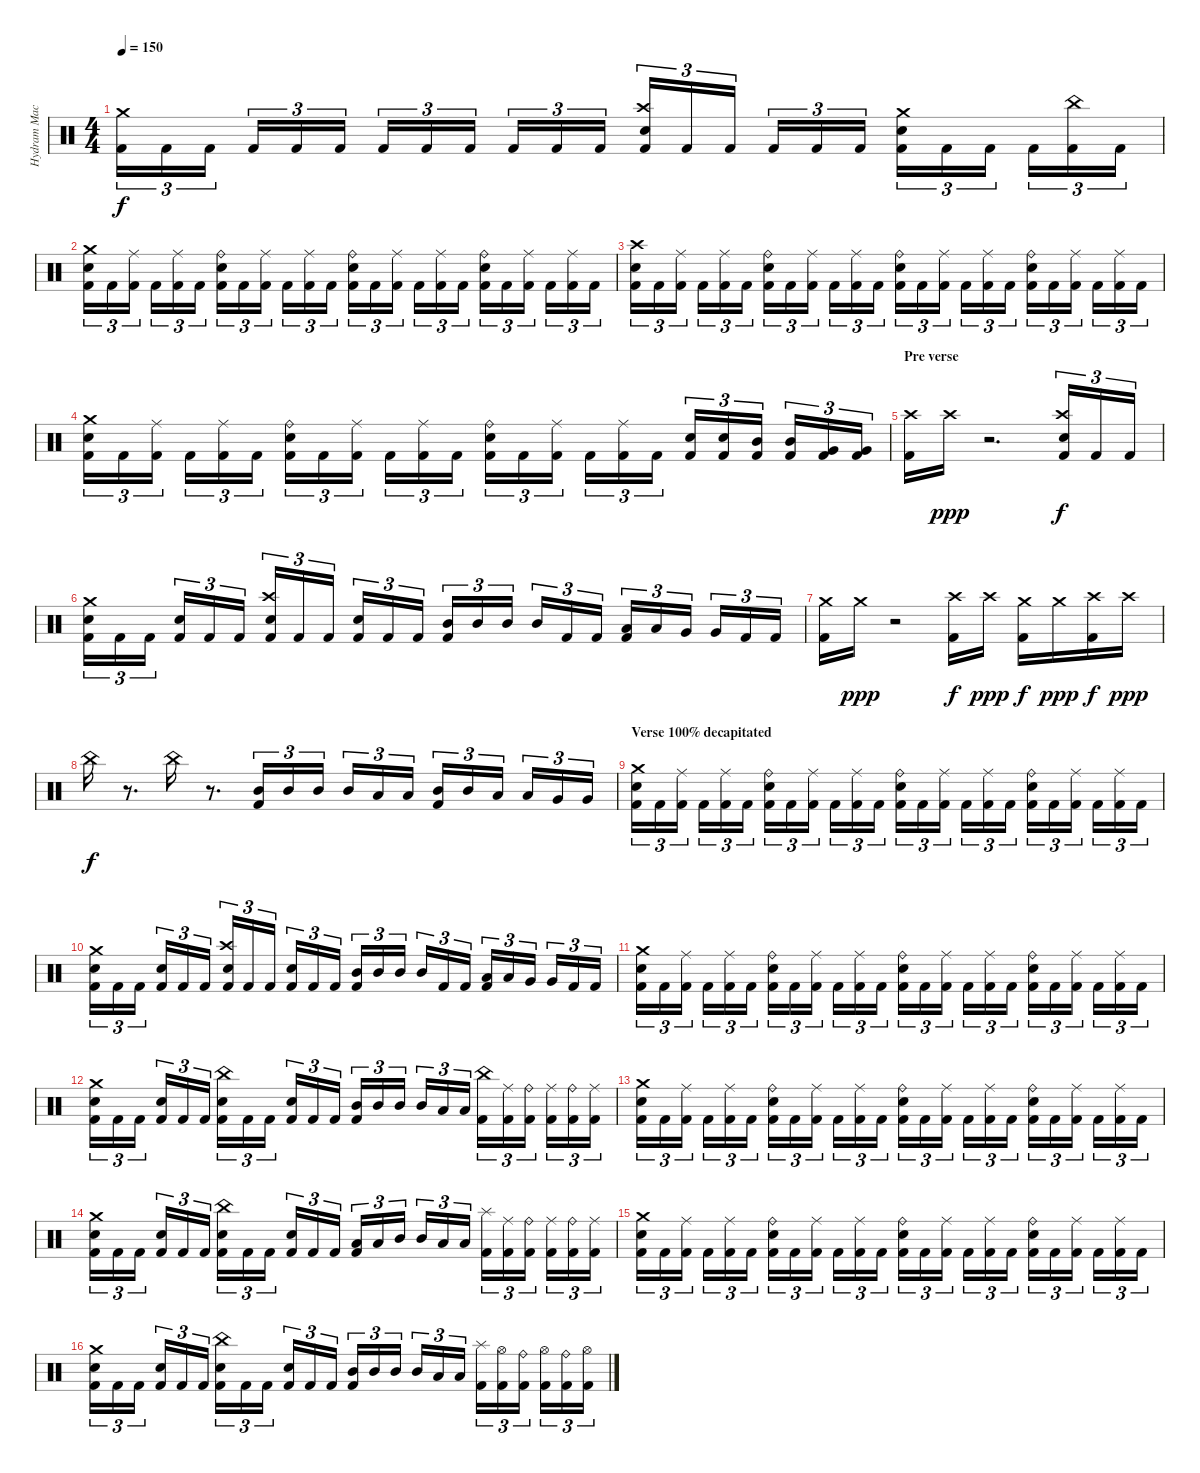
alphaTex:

\track ("Hydram Machine" "Hydram Mac") {instrument percussion}
\staff {score}
\articulation defaults
\ts (4 4)
\tempo 150
\clef neutral
\ks c
("Crash medium (hit)" "Kick (hit) 2").16{tu (3 2) dy f} "Kick (hit) 2".16{tu (3 2)} "Kick (hit) 2".16{tu (3 2) beam splitsecondary} "Kick (hit) 2".16{tu (3 2)} "Kick (hit) 2".16{tu (3 2)} "Kick (hit) 2".16{tu (3 2)} "Kick (hit) 2".16{tu (3 2)} "Kick (hit) 2".16{tu (3 2)} "Kick (hit) 2".16{tu (3 2) beam splitsecondary} "Kick (hit) 2".16{tu (3 2)} "Kick (hit) 2".16{tu (3 2)} "Kick (hit) 2".16{tu (3 2)} ("Crash high (hit)" "Electric Snare (hit)" "Kick (hit) 2").16{tu (3 2)} "Kick (hit) 2".16{tu (3 2)} "Kick (hit) 2".16{tu (3 2) beam splitsecondary} "Kick (hit) 2".16{tu (3 2)} "Kick (hit) 2".16{tu (3 2)} "Kick (hit) 2".16{tu (3 2)} ("Crash medium (hit)" "Electric Snare (hit)" "Kick (hit) 2").16{tu (3 2)} "Kick (hit) 2".16{tu (3 2)} "Kick (hit) 2".16{tu (3 2) beam splitsecondary} "Kick (hit) 2".16{tu (3 2)} ("China (hit)" "Kick (hit) 2").16{tu (3 2)} "Kick (hit) 2".16{tu (3 2)} |
("Crash medium (hit)" "Electric Snare (hit)" "Kick (hit) 2").16{tu (3 2)} "Kick (hit) 2".16{tu (3 2)} ("Ride (middle)" "Kick (hit) 2").16{tu (3 2) beam splitsecondary} "Kick (hit) 2".16{tu (3 2)} ("Ride (middle)" "Kick (hit) 2").16{tu (3 2)} "Kick (hit) 2".16{tu (3 2)} ("Ride (bell)" "Electric Snare (hit)" "Kick (hit) 2").16{tu (3 2)} "Kick (hit) 2".16{tu (3 2)} ("Ride (middle)" "Kick (hit) 2").16{tu (3 2) beam splitsecondary} "Kick (hit) 2".16{tu (3 2)} ("Ride (middle)" "Kick (hit) 2").16{tu (3 2)} "Kick (hit) 2".16{tu (3 2)} ("Ride (bell)" "Electric Snare (hit)" "Kick (hit) 2").16{tu (3 2)} "Kick (hit) 2".16{tu (3 2)} ("Ride (middle)" "Kick (hit) 2").16{tu (3 2) beam splitsecondary} "Kick (hit) 2".16{tu (3 2)} ("Ride (middle)" "Kick (hit) 2").16{tu (3 2)} "Kick (hit) 2".16{tu (3 2)} ("Ride (bell)" "Electric Snare (hit)" "Kick (hit) 2").16{tu (3 2)} "Kick (hit) 2".16{tu (3 2)} ("Ride (middle)" "Kick (hit) 2").16{tu (3 2) beam splitsecondary} "Kick (hit) 2".16{tu (3 2)} ("Ride (middle)" "Kick (hit) 2").16{tu (3 2)} "Kick (hit) 2".16{tu (3 2)} |
("Crash high (hit)" "Electric Snare (hit)" "Kick (hit) 2").16{tu (3 2)} "Kick (hit) 2".16{tu (3 2)} ("Ride (middle)" "Kick (hit) 2").16{tu (3 2) beam splitsecondary} "Kick (hit) 2".16{tu (3 2)} ("Ride (middle)" "Kick (hit) 2").16{tu (3 2)} "Kick (hit) 2".16{tu (3 2)} ("Ride (bell)" "Electric Snare (hit)" "Kick (hit) 2").16{tu (3 2)} "Kick (hit) 2".16{tu (3 2)} ("Ride (middle)" "Kick (hit) 2").16{tu (3 2) beam splitsecondary} "Kick (hit) 2".16{tu (3 2)} ("Ride (middle)" "Kick (hit) 2").16{tu (3 2)} "Kick (hit) 2".16{tu (3 2)} ("Ride (bell)" "Electric Snare (hit)" "Kick (hit) 2").16{tu (3 2)} "Kick (hit) 2".16{tu (3 2)} ("Ride (middle)" "Kick (hit) 2").16{tu (3 2) beam splitsecondary} "Kick (hit) 2".16{tu (3 2)} ("Ride (middle)" "Kick (hit) 2").16{tu (3 2)} "Kick (hit) 2".16{tu (3 2)} ("Ride (bell)" "Electric Snare (hit)" "Kick (hit) 2").16{tu (3 2)} "Kick (hit) 2".16{tu (3 2)} ("Ride (middle)" "Kick (hit) 2").16{tu (3 2) beam splitsecondary} "Kick (hit) 2".16{tu (3 2)} ("Ride (middle)" "Kick (hit) 2").16{tu (3 2)} "Kick (hit) 2".16{tu (3 2)} |
("Crash medium (hit)" "Electric Snare (hit)" "Kick (hit) 2").16{tu (3 2)} "Kick (hit) 2".16{tu (3 2)} ("Ride (middle)" "Kick (hit) 2").16{tu (3 2) beam splitsecondary} "Kick (hit) 2".16{tu (3 2)} ("Ride (middle)" "Kick (hit) 2").16{tu (3 2)} "Kick (hit) 2".16{tu (3 2)} ("Ride (bell)" "Electric Snare (hit)" "Kick (hit) 2").16{tu (3 2)} "Kick (hit) 2".16{tu (3 2)} ("Ride (middle)" "Kick (hit) 2").16{tu (3 2) beam splitsecondary} "Kick (hit) 2".16{tu (3 2)} ("Ride (middle)" "Kick (hit) 2").16{tu (3 2)} "Kick (hit) 2".16{tu (3 2)} ("Ride (bell)" "Electric Snare (hit)" "Kick (hit) 2").16{tu (3 2)} "Kick (hit) 2".16{tu (3 2)} ("Ride (middle)" "Kick (hit) 2").16{tu (3 2) beam splitsecondary} "Kick (hit) 2".16{tu (3 2)} ("Ride (middle)" "Kick (hit) 2").16{tu (3 2)} "Kick (hit) 2".16{tu (3 2)} ("Electric Snare (hit)" "Kick (hit) 2").16{tu (3 2)} ("Electric Snare (hit)" "Kick (hit) 2").16{tu (3 2)} ("Mid Tom (hit)" "Kick (hit) 2").16{tu (3 2) beam splitsecondary} ("Mid Tom (hit)" "Kick (hit) 2").16{tu (3 2)} ("Very Low Tom (hit)" "Kick (hit) 2").16{tu (3 2)} ("Very Low Tom (hit)" "Kick (hit) 2").16{tu (3 2)} |
\section ("" "Pre verse")
("Crash high (hit)" "Kick (hit) 2").16 "Crash high (hit)".16{dy ppp} r.2{d} ("Crash high (hit)" "Electric Snare (hit)" "Kick (hit) 2").16{tu (3 2) dy f} "Kick (hit) 2".16{tu (3 2)} "Kick (hit) 2".16{tu (3 2)} |
("Crash medium (hit)" "Electric Snare (hit)" "Kick (hit) 2").16{tu (3 2)} "Kick (hit) 2".16{tu (3 2)} "Kick (hit) 2".16{tu (3 2) beam splitsecondary} ("Electric Snare (hit)" "Kick (hit) 2").16{tu (3 2)} "Kick (hit) 2".16{tu (3 2)} "Kick (hit) 2".16{tu (3 2)} ("Crash high (hit)" "Electric Snare (hit)" "Kick (hit) 2").16{tu (3 2)} "Kick (hit) 2".16{tu (3 2)} "Kick (hit) 2".16{tu (3 2) beam splitsecondary} ("Electric Snare (hit)" "Kick (hit) 2").16{tu (3 2)} "Kick (hit) 2".16{tu (3 2)} "Kick (hit) 2".16{tu (3 2)} ("Mid Tom (hit)" "Kick (hit) 2").16{tu (3 2)} "Mid Tom (hit)".16{tu (3 2)} "Mid Tom (hit)".16{tu (3 2) beam splitsecondary} "Mid Tom (hit)".16{tu (3 2)} "Kick (hit) 2".16{tu (3 2)} "Kick (hit) 2".16{tu (3 2)} ("Low Tom (hit)" "Kick (hit) 2").16{tu (3 2)} "Low Tom (hit)".16{tu (3 2)} "Very Low Tom (hit)".16{tu (3 2) beam splitsecondary} "Very Low Tom (hit)".16{tu (3 2)} "Kick (hit) 2".16{tu (3 2)} "Kick (hit) 2".16{tu (3 2)} |
("Crash medium (hit)" "Kick (hit) 2").16 "Crash medium (hit)".16{dy ppp} r.2 ("Crash high (hit)" "Kick (hit) 2").16{dy f} "Crash high (hit)".16{dy ppp} ("Crash medium (hit)" "Kick (hit) 2").16{dy f} "Crash medium (hit)".16{dy ppp} ("Crash high (hit)" "Kick (hit) 2").16{dy f} "Crash high (hit)".16{dy ppp} |
"China (hit)".16{dy f} r.8{d} "China (hit)".16 r.8{d} ("Mid Tom (hit)" "Kick (hit) 2").16{tu (3 2)} "Mid Tom (hit)".16{tu (3 2)} "Mid Tom (hit)".16{tu (3 2) beam splitsecondary} "Mid Tom (hit)".16{tu (3 2)} "Low Tom (hit)".16{tu (3 2)} "Low Tom (hit)".16{tu (3 2)} ("Mid Tom (hit)" "Kick (hit) 2").16{tu (3 2)} "Mid Tom (hit)".16{tu (3 2)} "Low Tom (hit)".16{tu (3 2) beam splitsecondary} "Low Tom (hit)".16{tu (3 2)} "Very Low Tom (hit)".16{tu (3 2)} "Very Low Tom (hit)".16{tu (3 2)} |
\section ("" "Verse 100% decapitated")
("Crash medium (hit)" "Electric Snare (hit)" "Kick (hit) 2").16{tu (3 2)} "Kick (hit) 2".16{tu (3 2)} ("Ride (middle)" "Kick (hit) 2").16{tu (3 2) beam splitsecondary} "Kick (hit) 2".16{tu (3 2)} ("Ride (middle)" "Kick (hit) 2").16{tu (3 2)} "Kick (hit) 2".16{tu (3 2)} ("Ride (bell)" "Electric Snare (hit)" "Kick (hit) 2").16{tu (3 2)} "Kick (hit) 2".16{tu (3 2)} ("Ride (middle)" "Kick (hit) 2").16{tu (3 2) beam splitsecondary} "Kick (hit) 2".16{tu (3 2)} ("Ride (middle)" "Kick (hit) 2").16{tu (3 2)} "Kick (hit) 2".16{tu (3 2)} ("Ride (bell)" "Electric Snare (hit)" "Kick (hit) 2").16{tu (3 2)} "Kick (hit) 2".16{tu (3 2)} ("Ride (middle)" "Kick (hit) 2").16{tu (3 2) beam splitsecondary} "Kick (hit) 2".16{tu (3 2)} ("Ride (middle)" "Kick (hit) 2").16{tu (3 2)} "Kick (hit) 2".16{tu (3 2)} ("Ride (bell)" "Electric Snare (hit)" "Kick (hit) 2").16{tu (3 2)} "Kick (hit) 2".16{tu (3 2)} ("Ride (middle)" "Kick (hit) 2").16{tu (3 2) beam splitsecondary} "Kick (hit) 2".16{tu (3 2)} ("Ride (middle)" "Kick (hit) 2").16{tu (3 2)} "Kick (hit) 2".16{tu (3 2)} |
("Crash medium (hit)" "Electric Snare (hit)" "Kick (hit) 2").16{tu (3 2)} "Kick (hit) 2".16{tu (3 2)} "Kick (hit) 2".16{tu (3 2) beam splitsecondary} ("Electric Snare (hit)" "Kick (hit) 2").16{tu (3 2)} "Kick (hit) 2".16{tu (3 2)} "Kick (hit) 2".16{tu (3 2)} ("Crash high (hit)" "Electric Snare (hit)" "Kick (hit) 2").16{tu (3 2)} "Kick (hit) 2".16{tu (3 2)} "Kick (hit) 2".16{tu (3 2) beam splitsecondary} ("Electric Snare (hit)" "Kick (hit) 2").16{tu (3 2)} "Kick (hit) 2".16{tu (3 2)} "Kick (hit) 2".16{tu (3 2)} ("Mid Tom (hit)" "Kick (hit) 2").16{tu (3 2)} "Mid Tom (hit)".16{tu (3 2)} "Mid Tom (hit)".16{tu (3 2) beam splitsecondary} "Mid Tom (hit)".16{tu (3 2)} "Kick (hit) 2".16{tu (3 2)} "Kick (hit) 2".16{tu (3 2)} ("Low Tom (hit)" "Kick (hit) 2").16{tu (3 2)} "Low Tom (hit)".16{tu (3 2)} "Very Low Tom (hit)".16{tu (3 2) beam splitsecondary} "Very Low Tom (hit)".16{tu (3 2)} "Kick (hit) 2".16{tu (3 2)} "Kick (hit) 2".16{tu (3 2)} |
("Crash medium (hit)" "Electric Snare (hit)" "Kick (hit) 2").16{tu (3 2)} "Kick (hit) 2".16{tu (3 2)} ("Ride (middle)" "Kick (hit) 2").16{tu (3 2) beam splitsecondary} "Kick (hit) 2".16{tu (3 2)} ("Ride (middle)" "Kick (hit) 2").16{tu (3 2)} "Kick (hit) 2".16{tu (3 2)} ("Ride (bell)" "Electric Snare (hit)" "Kick (hit) 2").16{tu (3 2)} "Kick (hit) 2".16{tu (3 2)} ("Ride (middle)" "Kick (hit) 2").16{tu (3 2) beam splitsecondary} "Kick (hit) 2".16{tu (3 2)} ("Ride (middle)" "Kick (hit) 2").16{tu (3 2)} "Kick (hit) 2".16{tu (3 2)} ("Ride (bell)" "Electric Snare (hit)" "Kick (hit) 2").16{tu (3 2)} "Kick (hit) 2".16{tu (3 2)} ("Ride (middle)" "Kick (hit) 2").16{tu (3 2) beam splitsecondary} "Kick (hit) 2".16{tu (3 2)} ("Ride (middle)" "Kick (hit) 2").16{tu (3 2)} "Kick (hit) 2".16{tu (3 2)} ("Ride (bell)" "Electric Snare (hit)" "Kick (hit) 2").16{tu (3 2)} "Kick (hit) 2".16{tu (3 2)} ("Ride (middle)" "Kick (hit) 2").16{tu (3 2) beam splitsecondary} "Kick (hit) 2".16{tu (3 2)} ("Ride (middle)" "Kick (hit) 2").16{tu (3 2)} "Kick (hit) 2".16{tu (3 2)} |
("Crash medium (hit)" "Electric Snare (hit)" "Kick (hit) 2").16{tu (3 2)} "Kick (hit) 2".16{tu (3 2)} "Kick (hit) 2".16{tu (3 2) beam splitsecondary} ("Electric Snare (hit)" "Kick (hit) 2").16{tu (3 2)} "Kick (hit) 2".16{tu (3 2)} "Kick (hit) 2".16{tu (3 2)} ("China (hit)" "Electric Snare (hit)" "Kick (hit) 2").16{tu (3 2)} "Kick (hit) 2".16{tu (3 2)} "Kick (hit) 2".16{tu (3 2) beam splitsecondary} ("Electric Snare (hit)" "Kick (hit) 2").16{tu (3 2)} "Kick (hit) 2".16{tu (3 2)} "Kick (hit) 2".16{tu (3 2)} ("Mid Tom (hit)" "Kick (hit) 2").16{tu (3 2)} "Mid Tom (hit)".16{tu (3 2)} "Mid Tom (hit)".16{tu (3 2) beam splitsecondary} "Mid Tom (hit)".16{tu (3 2)} "Low Tom (hit)".16{tu (3 2)} "Low Tom (hit)".16{tu (3 2)} ("China (hit)" "Kick (hit) 2").16{tu (3 2)} ("Ride (middle)" "Kick (hit) 2").16{tu (3 2)} ("Ride (bell)" "Kick (hit) 2").16{tu (3 2) beam splitsecondary} ("Ride (middle)" "Kick (hit) 2").16{tu (3 2)} ("Ride (bell)" "Kick (hit) 2").16{tu (3 2)} ("Ride (middle)" "Kick (hit) 2").16{tu (3 2)} |
("Crash medium (hit)" "Electric Snare (hit)" "Kick (hit) 2").16{tu (3 2)} "Kick (hit) 2".16{tu (3 2)} ("Ride (middle)" "Kick (hit) 2").16{tu (3 2) beam splitsecondary} "Kick (hit) 2".16{tu (3 2)} ("Ride (middle)" "Kick (hit) 2").16{tu (3 2)} "Kick (hit) 2".16{tu (3 2)} ("Ride (bell)" "Electric Snare (hit)" "Kick (hit) 2").16{tu (3 2)} "Kick (hit) 2".16{tu (3 2)} ("Ride (middle)" "Kick (hit) 2").16{tu (3 2) beam splitsecondary} "Kick (hit) 2".16{tu (3 2)} ("Ride (middle)" "Kick (hit) 2").16{tu (3 2)} "Kick (hit) 2".16{tu (3 2)} ("Ride (bell)" "Electric Snare (hit)" "Kick (hit) 2").16{tu (3 2)} "Kick (hit) 2".16{tu (3 2)} ("Ride (middle)" "Kick (hit) 2").16{tu (3 2) beam splitsecondary} "Kick (hit) 2".16{tu (3 2)} ("Ride (middle)" "Kick (hit) 2").16{tu (3 2)} "Kick (hit) 2".16{tu (3 2)} ("Ride (bell)" "Electric Snare (hit)" "Kick (hit) 2").16{tu (3 2)} "Kick (hit) 2".16{tu (3 2)} ("Ride (middle)" "Kick (hit) 2").16{tu (3 2) beam splitsecondary} "Kick (hit) 2".16{tu (3 2)} ("Ride (middle)" "Kick (hit) 2").16{tu (3 2)} "Kick (hit) 2".16{tu (3 2)} |
("Crash medium (hit)" "Electric Snare (hit)" "Kick (hit) 2").16{tu (3 2)} "Kick (hit) 2".16{tu (3 2)} "Kick (hit) 2".16{tu (3 2) beam splitsecondary} ("Electric Snare (hit)" "Kick (hit) 2").16{tu (3 2)} "Kick (hit) 2".16{tu (3 2)} "Kick (hit) 2".16{tu (3 2)} ("China (hit)" "Electric Snare (hit)" "Kick (hit) 2").16{tu (3 2)} "Kick (hit) 2".16{tu (3 2)} "Kick (hit) 2".16{tu (3 2) beam splitsecondary} ("Electric Snare (hit)" "Kick (hit) 2").16{tu (3 2)} "Kick (hit) 2".16{tu (3 2)} "Kick (hit) 2".16{tu (3 2)} ("Low Tom (hit)" "Kick (hit) 2").16{tu (3 2)} "Low Tom (hit)".16{tu (3 2)} "Mid Tom (hit)".16{tu (3 2) beam splitsecondary} "Mid Tom (hit)".16{tu (3 2)} "Low Tom (hit)".16{tu (3 2)} "Low Tom (hit)".16{tu (3 2)} ("Splash (hit)" "Kick (hit) 2").16{tu (3 2)} ("Ride (middle)" "Kick (hit) 2").16{tu (3 2)} ("Ride (bell)" "Kick (hit) 2").16{tu (3 2) beam splitsecondary} ("Ride (middle)" "Kick (hit) 2").16{tu (3 2)} ("Ride (bell)" "Kick (hit) 2").16{tu (3 2)} ("Ride (middle)" "Kick (hit) 2").16{tu (3 2)} |
("Crash medium (hit)" "Electric Snare (hit)" "Kick (hit) 2").16{tu (3 2)} "Kick (hit) 2".16{tu (3 2)} ("Ride (middle)" "Kick (hit) 2").16{tu (3 2) beam splitsecondary} "Kick (hit) 2".16{tu (3 2)} ("Ride (middle)" "Kick (hit) 2").16{tu (3 2)} "Kick (hit) 2".16{tu (3 2)} ("Ride (bell)" "Electric Snare (hit)" "Kick (hit) 2").16{tu (3 2)} "Kick (hit) 2".16{tu (3 2)} ("Ride (middle)" "Kick (hit) 2").16{tu (3 2) beam splitsecondary} "Kick (hit) 2".16{tu (3 2)} ("Ride (middle)" "Kick (hit) 2").16{tu (3 2)} "Kick (hit) 2".16{tu (3 2)} ("Ride (bell)" "Electric Snare (hit)" "Kick (hit) 2").16{tu (3 2)} "Kick (hit) 2".16{tu (3 2)} ("Ride (middle)" "Kick (hit) 2").16{tu (3 2) beam splitsecondary} "Kick (hit) 2".16{tu (3 2)} ("Ride (middle)" "Kick (hit) 2").16{tu (3 2)} "Kick (hit) 2".16{tu (3 2)} ("Ride (bell)" "Electric Snare (hit)" "Kick (hit) 2").16{tu (3 2)} "Kick (hit) 2".16{tu (3 2)} ("Ride (middle)" "Kick (hit) 2").16{tu (3 2) beam splitsecondary} "Kick (hit) 2".16{tu (3 2)} ("Ride (middle)" "Kick (hit) 2").16{tu (3 2)} "Kick (hit) 2".16{tu (3 2)} |
("Crash medium (hit)" "Electric Snare (hit)" "Kick (hit) 2").16{tu (3 2)} "Kick (hit) 2".16{tu (3 2)} "Kick (hit) 2".16{tu (3 2) beam splitsecondary} ("Electric Snare (hit)" "Kick (hit) 2").16{tu (3 2)} "Kick (hit) 2".16{tu (3 2)} "Kick (hit) 2".16{tu (3 2)} ("China (hit)" "Electric Snare (hit)" "Kick (hit) 2").16{tu (3 2)} "Kick (hit) 2".16{tu (3 2)} "Kick (hit) 2".16{tu (3 2) beam splitsecondary} ("Electric Snare (hit)" "Kick (hit) 2").16{tu (3 2)} "Kick (hit) 2".16{tu (3 2)} "Kick (hit) 2".16{tu (3 2)} ("Mid Tom (hit)" "Kick (hit) 2").16{tu (3 2)} "Mid Tom (hit)".16{tu (3 2)} "Mid Tom (hit)".16{tu (3 2) beam splitsecondary} "Mid Tom (hit)".16{tu (3 2)} "Low Tom (hit)".16{tu (3 2)} "Low Tom (hit)".16{tu (3 2)} ("Splash (hit)" "Kick (hit) 2").16{tu (3 2)} ("Hi-Hat (open)" "Kick (hit) 2").16{tu (3 2)} ("Ride (bell)" "Kick (hit) 2").16{tu (3 2) beam splitsecondary} ("Hi-Hat (open)" "Kick (hit) 2").16{tu (3 2)} ("Ride (bell)" "Kick (hit) 2").16{tu (3 2)} ("Hi-Hat (open)" "Kick (hit) 2").16{tu (3 2)}
